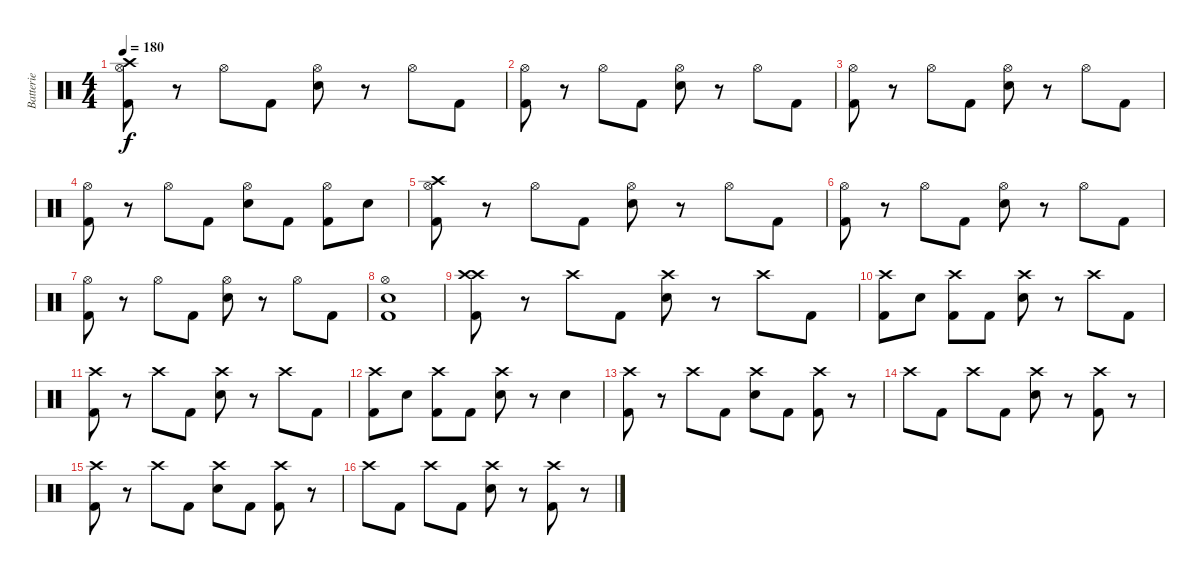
\track ("Batterie" "Batterie") {instrument percussion}
\staff {score}
\articulation defaults
\ts (4 4)
\tempo 180
\clef neutral
\ks c
("Crash high (hit)" "Hi-Hat (open)" "Kick (hit) 2").8{dy f} r.8 "Hi-Hat (open)".8 "Kick (hit) 2".8 ("Hi-Hat (open)" "Snare (hit) 2").8 r.8 "Hi-Hat (open)".8 "Kick (hit) 2".8 |
("Hi-Hat (open)" "Kick (hit) 2").8 r.8 "Hi-Hat (open)".8 "Kick (hit) 2".8 ("Hi-Hat (open)" "Snare (hit) 2").8 r.8 "Hi-Hat (open)".8 "Kick (hit) 2".8 |
("Hi-Hat (open)" "Kick (hit) 2").8 r.8 "Hi-Hat (open)".8 "Kick (hit) 2".8 ("Hi-Hat (open)" "Snare (hit) 2").8 r.8 "Hi-Hat (open)".8 "Kick (hit) 2".8 |
("Hi-Hat (open)" "Kick (hit) 2").8 r.8 "Hi-Hat (open)".8 "Kick (hit) 2".8 ("Hi-Hat (open)" "Snare (hit) 2").8 "Kick (hit) 2".8 ("Hi-Hat (open)" "Kick (hit) 2").8 "Snare (hit) 2".8 |
("Crash high (hit)" "Hi-Hat (open)" "Kick (hit) 2").8 r.8 "Hi-Hat (open)".8 "Kick (hit) 2".8 ("Hi-Hat (open)" "Snare (hit) 2").8 r.8 "Hi-Hat (open)".8 "Kick (hit) 2".8 |
("Hi-Hat (open)" "Kick (hit) 2").8 r.8 "Hi-Hat (open)".8 "Kick (hit) 2".8 ("Hi-Hat (open)" "Snare (hit) 2").8 r.8 "Hi-Hat (open)".8 "Kick (hit) 2".8 |
("Hi-Hat (open)" "Kick (hit) 2").8 r.8 "Hi-Hat (open)".8 "Kick (hit) 2".8 ("Hi-Hat (open)" "Snare (hit) 2").8 r.8 "Hi-Hat (open)".8 "Kick (hit) 2".8 |
("Hi-Hat (open)" "Snare (hit) 2" "Kick (hit) 2").1 |
("Crash high (hit)" "Crash high (hit)" "Kick (hit) 2").8 r.8 "Crash high (hit)".8 "Kick (hit) 2".8 ("Crash high (hit)" "Snare (hit) 2").8 r.8 "Crash high (hit)".8 "Kick (hit) 2".8 |
("Crash high (hit)" "Kick (hit) 2").8 "Snare (hit) 2".8 ("Crash high (hit)" "Kick (hit) 2").8 "Kick (hit) 2".8 ("Crash high (hit)" "Snare (hit) 2").8 r.8 "Crash high (hit)".8 "Kick (hit) 2".8 |
("Crash high (hit)" "Kick (hit) 2").8 r.8 "Crash high (hit)".8 "Kick (hit) 2".8 ("Crash high (hit)" "Snare (hit) 2").8 r.8 "Crash high (hit)".8 "Kick (hit) 2".8 |
("Crash high (hit)" "Kick (hit) 2").8 "Snare (hit) 2".8 ("Crash high (hit)" "Kick (hit) 2").8 "Kick (hit) 2".8 ("Crash high (hit)" "Snare (hit) 2").8 r.8 "Snare (hit) 2".4 |
("Crash high (hit)" "Kick (hit) 2").8 r.8 "Crash high (hit)".8 "Kick (hit) 2".8 ("Crash high (hit)" "Snare (hit) 2").8 "Kick (hit) 2".8 ("Crash high (hit)" "Kick (hit) 2").8 r.8 |
"Crash high (hit)".8 "Kick (hit) 2".8 "Crash high (hit)".8 "Kick (hit) 2".8 ("Crash high (hit)" "Snare (hit) 2").8 r.8 ("Crash high (hit)" "Kick (hit) 2").8 r.8 |
("Crash high (hit)" "Kick (hit) 2").8 r.8 "Crash high (hit)".8 "Kick (hit) 2".8 ("Crash high (hit)" "Snare (hit) 2").8 "Kick (hit) 2".8 ("Crash high (hit)" "Kick (hit) 2").8 r.8 |
"Crash high (hit)".8 "Kick (hit) 2".8 "Crash high (hit)".8 "Kick (hit) 2".8 ("Crash high (hit)" "Snare (hit) 2").8 r.8 ("Crash high (hit)" "Kick (hit) 2").8 r.8
